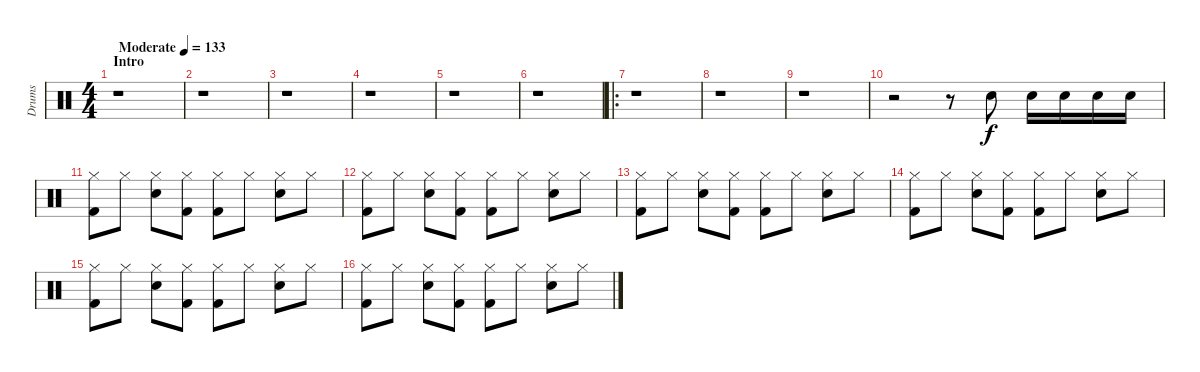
\track ("Drums" "Drums") {instrument percussion bank 4}
\staff {score}
\articulation defaults
\ts (4 4)
\section ("" "Intro")
\tempo (133 "Moderate")
\clef neutral
\ks c
r.1{dy f} |
r.1 |
r.1 |
r.1 |
r.1 |
r.1 |
\ro
r.1 |
r.1 |
r.1 |
r.2 r.8 "Snare (hit) 2".8 "Snare (hit) 2".16 "Snare (hit) 2".16 "Snare (hit) 2".16 "Snare (hit) 2".16 |
("Hi-Hat (closed)" "Kick (hit) 2").8 "Hi-Hat (closed)".8 ("Hi-Hat (closed)" "Snare (hit) 2").8 ("Hi-Hat (closed)" "Kick (hit) 2").8 ("Hi-Hat (closed)" "Kick (hit) 2").8 "Hi-Hat (closed)".8 ("Hi-Hat (closed)" "Snare (hit) 2").8 "Hi-Hat (closed)".8 |
("Hi-Hat (closed)" "Kick (hit) 2").8 "Hi-Hat (closed)".8 ("Hi-Hat (closed)" "Snare (hit) 2").8 ("Hi-Hat (closed)" "Kick (hit) 2").8 ("Hi-Hat (closed)" "Kick (hit) 2").8 "Hi-Hat (closed)".8 ("Hi-Hat (closed)" "Snare (hit) 2").8 "Hi-Hat (closed)".8 |
("Hi-Hat (closed)" "Kick (hit) 2").8 "Hi-Hat (closed)".8 ("Hi-Hat (closed)" "Snare (hit) 2").8 ("Hi-Hat (closed)" "Kick (hit) 2").8 ("Hi-Hat (closed)" "Kick (hit) 2").8 "Hi-Hat (closed)".8 ("Hi-Hat (closed)" "Snare (hit) 2").8 "Hi-Hat (closed)".8 |
("Hi-Hat (closed)" "Kick (hit) 2").8 "Hi-Hat (closed)".8 ("Hi-Hat (closed)" "Snare (hit) 2").8 ("Hi-Hat (closed)" "Kick (hit) 2").8 ("Hi-Hat (closed)" "Kick (hit) 2").8 "Hi-Hat (closed)".8 ("Hi-Hat (closed)" "Snare (hit) 2").8 "Hi-Hat (closed)".8 |
("Hi-Hat (closed)" "Kick (hit) 2").8 "Hi-Hat (closed)".8 ("Hi-Hat (closed)" "Snare (hit) 2").8 ("Hi-Hat (closed)" "Kick (hit) 2").8 ("Hi-Hat (closed)" "Kick (hit) 2").8 "Hi-Hat (closed)".8 ("Hi-Hat (closed)" "Snare (hit) 2").8 "Hi-Hat (closed)".8 |
("Hi-Hat (closed)" "Kick (hit) 2").8 "Hi-Hat (closed)".8 ("Hi-Hat (closed)" "Snare (hit) 2").8 ("Hi-Hat (closed)" "Kick (hit) 2").8 ("Hi-Hat (closed)" "Kick (hit) 2").8 "Hi-Hat (closed)".8 ("Hi-Hat (closed)" "Snare (hit) 2").8 "Hi-Hat (closed)".8
